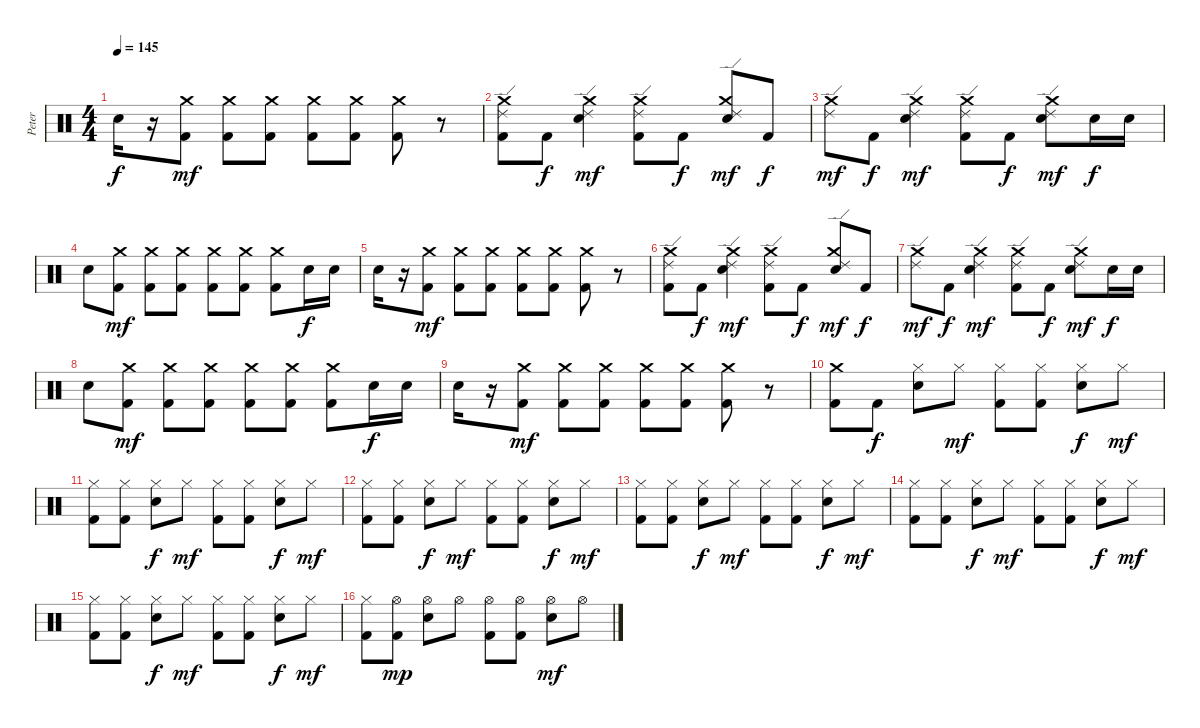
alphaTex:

\track ("Peter" "Peter") {instrument percussion}
\staff {score}
\articulation defaults
\ts (4 4)
\tempo 145
\clef neutral
\ks c "Electric Snare (hit)".16{dy f}
r.16 ("Crash medium (hit)" "Kick (hit) 2").8{dy mf} ("Crash medium (hit)" "Kick (hit) 2").8 ("Crash medium (hit)" "Kick (hit) 2").8 ("Crash medium (hit)" "Kick (hit) 2").8 ("Crash medium (hit)" "Kick (hit) 2").8 ("Crash medium (hit)" "Kick (hit) 2").8 r.8 |
("Crash medium (hit)" "Ride (edge) 2" "Kick (hit) 2").8 "Kick (hit) 2".8{dy f} ("Crash medium (hit)" "Ride (edge) 2" "Electric Snare (hit)").4{dy mf} ("Ride (edge) 2" "Crash medium (hit)" "Kick (hit) 2").8 "Kick (hit) 2".8{dy f} ("Ride (edge) 2" "Crash medium (hit)" "Electric Snare (hit)").8{dy mf} "Kick (hit) 2".8{dy f} |
("Crash medium (hit)" "Ride (edge) 2").8{dy mf} "Kick (hit) 2".8{dy f} ("Ride (edge) 2" "Crash medium (hit)" "Electric Snare (hit)").4{dy mf} ("Crash medium (hit)" "Ride (edge) 2" "Kick (hit) 2").8 "Kick (hit) 2".8{dy f} ("Crash medium (hit)" "Ride (edge) 2" "Electric Snare (hit)").8{dy mf} "Electric Snare (hit)".16{dy f} "Electric Snare (hit)".16 |
"Electric Snare (hit)".8 ("Crash medium (hit)" "Kick (hit) 2").8{dy mf} ("Crash medium (hit)" "Kick (hit) 2").8 ("Crash medium (hit)" "Kick (hit) 2").8 ("Crash medium (hit)" "Kick (hit) 2").8 ("Crash medium (hit)" "Kick (hit) 2").8 ("Crash medium (hit)" "Kick (hit) 2").8 "Electric Snare (hit)".16{dy f} "Electric Snare (hit)".16 |
"Electric Snare (hit)".16 r.16 ("Crash medium (hit)" "Kick (hit) 2").8{dy mf} ("Crash medium (hit)" "Kick (hit) 2").8 ("Crash medium (hit)" "Kick (hit) 2").8 ("Crash medium (hit)" "Kick (hit) 2").8 ("Crash medium (hit)" "Kick (hit) 2").8 ("Crash medium (hit)" "Kick (hit) 2").8 r.8 |
("Crash medium (hit)" "Ride (edge) 2" "Kick (hit) 2").8 "Kick (hit) 2".8{dy f} ("Crash medium (hit)" "Ride (edge) 2" "Electric Snare (hit)").4{dy mf} ("Ride (edge) 2" "Crash medium (hit)" "Kick (hit) 2").8 "Kick (hit) 2".8{dy f} ("Ride (edge) 2" "Crash medium (hit)" "Electric Snare (hit)").8{dy mf} "Kick (hit) 2".8{dy f} |
("Crash medium (hit)" "Ride (edge) 2").8{dy mf} "Kick (hit) 2".8{dy f} ("Ride (edge) 2" "Crash medium (hit)" "Electric Snare (hit)").4{dy mf} ("Crash medium (hit)" "Ride (edge) 2" "Kick (hit) 2").8 "Kick (hit) 2".8{dy f} ("Crash medium (hit)" "Ride (edge) 2" "Electric Snare (hit)").8{dy mf} "Electric Snare (hit)".16{dy f} "Electric Snare (hit)".16 |
"Electric Snare (hit)".8 ("Crash medium (hit)" "Kick (hit) 2").8{dy mf} ("Crash medium (hit)" "Kick (hit) 2").8 ("Crash medium (hit)" "Kick (hit) 2").8 ("Crash medium (hit)" "Kick (hit) 2").8 ("Crash medium (hit)" "Kick (hit) 2").8 ("Crash medium (hit)" "Kick (hit) 2").8 "Electric Snare (hit)".16{dy f} "Electric Snare (hit)".16 |
"Electric Snare (hit)".16 r.16 ("Crash medium (hit)" "Kick (hit) 2").8{dy mf} ("Crash medium (hit)" "Kick (hit) 2").8 ("Crash medium (hit)" "Kick (hit) 2").8 ("Crash medium (hit)" "Kick (hit) 2").8 ("Crash medium (hit)" "Kick (hit) 2").8 ("Crash medium (hit)" "Kick (hit) 2").8 r.8 |
("Crash medium (hit)" "Kick (hit) 2").8 "Kick (hit) 2".8{dy f} ("Hi-Hat (closed)" "Electric Snare (hit)").8 "Hi-Hat (closed)".8{dy mf} ("Hi-Hat (closed)" "Kick (hit) 2").8 ("Hi-Hat (closed)" "Kick (hit) 2").8 ("Hi-Hat (closed)" "Electric Snare (hit)").8{dy f} "Hi-Hat (closed)".8{dy mf} |
("Hi-Hat (closed)" "Kick (hit) 2").8 ("Hi-Hat (closed)" "Kick (hit) 2").8 ("Hi-Hat (closed)" "Electric Snare (hit)").8{dy f} "Hi-Hat (closed)".8{dy mf} ("Hi-Hat (closed)" "Kick (hit) 2").8 ("Hi-Hat (closed)" "Kick (hit) 2").8 ("Hi-Hat (closed)" "Electric Snare (hit)").8{dy f} "Hi-Hat (closed)".8{dy mf} |
("Hi-Hat (closed)" "Kick (hit) 2").8 ("Hi-Hat (closed)" "Kick (hit) 2").8 ("Hi-Hat (closed)" "Electric Snare (hit)").8{dy f} "Hi-Hat (closed)".8{dy mf} ("Hi-Hat (closed)" "Kick (hit) 2").8 ("Hi-Hat (closed)" "Kick (hit) 2").8 ("Hi-Hat (closed)" "Electric Snare (hit)").8{dy f} "Hi-Hat (closed)".8{dy mf} |
("Hi-Hat (closed)" "Kick (hit) 2").8 ("Hi-Hat (closed)" "Kick (hit) 2").8 ("Hi-Hat (closed)" "Electric Snare (hit)").8{dy f} "Hi-Hat (closed)".8{dy mf} ("Hi-Hat (closed)" "Kick (hit) 2").8 ("Hi-Hat (closed)" "Kick (hit) 2").8 ("Hi-Hat (closed)" "Electric Snare (hit)").8{dy f} "Hi-Hat (closed)".8{dy mf} |
("Hi-Hat (closed)" "Kick (hit) 2").8 ("Hi-Hat (closed)" "Kick (hit) 2").8 ("Hi-Hat (closed)" "Electric Snare (hit)").8{dy f} "Hi-Hat (closed)".8{dy mf} ("Hi-Hat (closed)" "Kick (hit) 2").8 ("Hi-Hat (closed)" "Kick (hit) 2").8 ("Hi-Hat (closed)" "Electric Snare (hit)").8{dy f} "Hi-Hat (closed)".8{dy mf} |
("Hi-Hat (closed)" "Kick (hit) 2").8 ("Hi-Hat (closed)" "Kick (hit) 2").8 ("Hi-Hat (closed)" "Electric Snare (hit)").8{dy f} "Hi-Hat (closed)".8{dy mf} ("Hi-Hat (closed)" "Kick (hit) 2").8 ("Hi-Hat (closed)" "Kick (hit) 2").8 ("Hi-Hat (closed)" "Electric Snare (hit)").8{dy f} "Hi-Hat (closed)".8{dy mf} |
("Hi-Hat (closed)" "Kick (hit) 2").8 ("Hi-Hat (open)" "Kick (hit) 2").8{dy mp} ("Hi-Hat (open)" "Electric Snare (hit)").8 "Hi-Hat (open)".8 ("Hi-Hat (open)" "Kick (hit) 2").8 ("Hi-Hat (open)" "Kick (hit) 2").8 ("Hi-Hat (open)" "Electric Snare (hit)").8{dy mf} "Hi-Hat (open)".8
